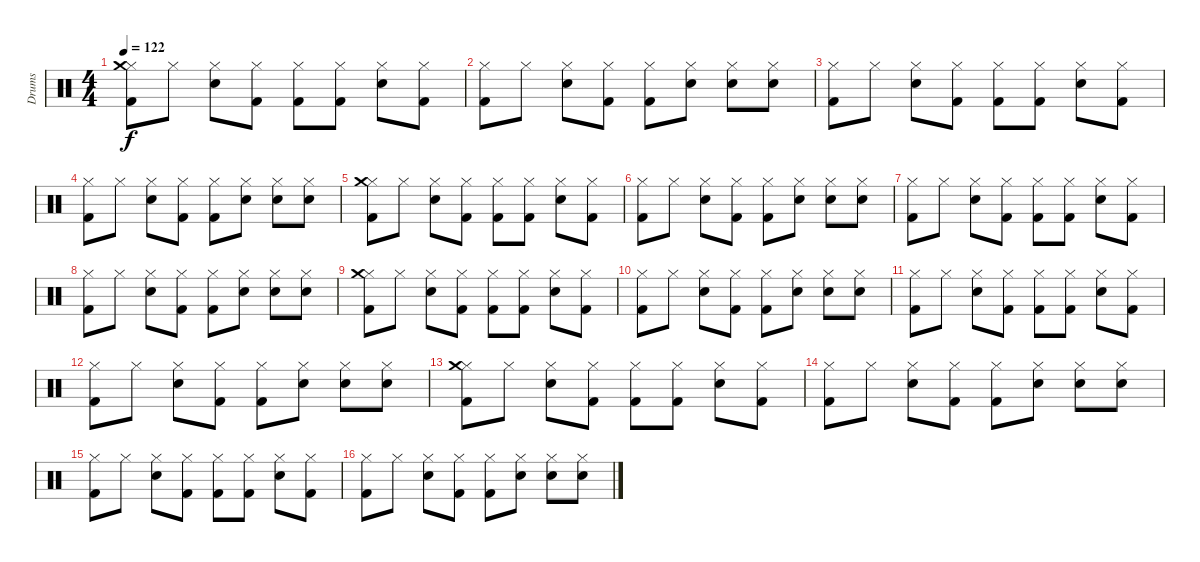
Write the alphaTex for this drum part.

\track ("Drums" "Drums") {instrument percussion}
\staff {score}
\articulation defaults
\ts (4 4)
\tempo 122
\clef neutral
\ks c
("Hi-Hat (closed)" "Crash medium (hit)" "Kick (hit) 2").8{dy f} "Hi-Hat (closed)".8 ("Hi-Hat (closed)" "Snare (hit) 2").8 ("Hi-Hat (closed)" "Kick (hit) 2").8 ("Hi-Hat (closed)" "Kick (hit) 2").8 ("Hi-Hat (closed)" "Kick (hit) 2").8 ("Hi-Hat (closed)" "Snare (hit) 2").8 ("Hi-Hat (closed)" "Kick (hit) 2").8 |
("Kick (hit) 2" "Hi-Hat (closed)").8 "Hi-Hat (closed)".8 ("Snare (hit) 2" "Hi-Hat (closed)").8 ("Kick (hit) 2" "Hi-Hat (closed)").8 ("Kick (hit) 2" "Hi-Hat (closed)").8 ("Snare (hit) 2" "Hi-Hat (closed)").8 ("Snare (hit) 2" "Hi-Hat (closed)").8 ("Snare (hit) 2" "Hi-Hat (closed)").8 |
("Kick (hit) 2" "Hi-Hat (closed)").8 "Hi-Hat (closed)".8 ("Hi-Hat (closed)" "Snare (hit) 2").8 ("Hi-Hat (closed)" "Kick (hit) 2").8 ("Hi-Hat (closed)" "Kick (hit) 2").8 ("Hi-Hat (closed)" "Kick (hit) 2").8 ("Hi-Hat (closed)" "Snare (hit) 2").8 ("Hi-Hat (closed)" "Kick (hit) 2").8 |
("Kick (hit) 2" "Hi-Hat (closed)").8 "Hi-Hat (closed)".8 ("Snare (hit) 2" "Hi-Hat (closed)").8 ("Kick (hit) 2" "Hi-Hat (closed)").8 ("Kick (hit) 2" "Hi-Hat (closed)").8 ("Snare (hit) 2" "Hi-Hat (closed)").8 ("Snare (hit) 2" "Hi-Hat (closed)").8 ("Snare (hit) 2" "Hi-Hat (closed)").8 |
("Hi-Hat (closed)" "Crash medium (hit)" "Kick (hit) 2").8 "Hi-Hat (closed)".8 ("Hi-Hat (closed)" "Snare (hit) 2").8 ("Hi-Hat (closed)" "Kick (hit) 2").8 ("Hi-Hat (closed)" "Kick (hit) 2").8 ("Hi-Hat (closed)" "Kick (hit) 2").8 ("Hi-Hat (closed)" "Snare (hit) 2").8 ("Hi-Hat (closed)" "Kick (hit) 2").8 |
("Kick (hit) 2" "Hi-Hat (closed)").8 "Hi-Hat (closed)".8 ("Snare (hit) 2" "Hi-Hat (closed)").8 ("Kick (hit) 2" "Hi-Hat (closed)").8 ("Kick (hit) 2" "Hi-Hat (closed)").8 ("Snare (hit) 2" "Hi-Hat (closed)").8 ("Snare (hit) 2" "Hi-Hat (closed)").8 ("Snare (hit) 2" "Hi-Hat (closed)").8 |
("Kick (hit) 2" "Hi-Hat (closed)").8 "Hi-Hat (closed)".8 ("Hi-Hat (closed)" "Snare (hit) 2").8 ("Hi-Hat (closed)" "Kick (hit) 2").8 ("Hi-Hat (closed)" "Kick (hit) 2").8 ("Hi-Hat (closed)" "Kick (hit) 2").8 ("Hi-Hat (closed)" "Snare (hit) 2").8 ("Hi-Hat (closed)" "Kick (hit) 2").8 |
("Kick (hit) 2" "Hi-Hat (closed)").8 "Hi-Hat (closed)".8 ("Snare (hit) 2" "Hi-Hat (closed)").8 ("Kick (hit) 2" "Hi-Hat (closed)").8 ("Kick (hit) 2" "Hi-Hat (closed)").8 ("Snare (hit) 2" "Hi-Hat (closed)").8 ("Snare (hit) 2" "Hi-Hat (closed)").8 ("Snare (hit) 2" "Hi-Hat (closed)").8 |
("Hi-Hat (closed)" "Crash medium (hit)" "Kick (hit) 2").8 "Hi-Hat (closed)".8 ("Hi-Hat (closed)" "Snare (hit) 2").8 ("Hi-Hat (closed)" "Kick (hit) 2").8 ("Hi-Hat (closed)" "Kick (hit) 2").8 ("Hi-Hat (closed)" "Kick (hit) 2").8 ("Hi-Hat (closed)" "Snare (hit) 2").8 ("Hi-Hat (closed)" "Kick (hit) 2").8 |
("Kick (hit) 2" "Hi-Hat (closed)").8 "Hi-Hat (closed)".8 ("Snare (hit) 2" "Hi-Hat (closed)").8 ("Kick (hit) 2" "Hi-Hat (closed)").8 ("Kick (hit) 2" "Hi-Hat (closed)").8 ("Snare (hit) 2" "Hi-Hat (closed)").8 ("Snare (hit) 2" "Hi-Hat (closed)").8 ("Snare (hit) 2" "Hi-Hat (closed)").8 |
("Kick (hit) 2" "Hi-Hat (closed)").8 "Hi-Hat (closed)".8 ("Hi-Hat (closed)" "Snare (hit) 2").8 ("Hi-Hat (closed)" "Kick (hit) 2").8 ("Hi-Hat (closed)" "Kick (hit) 2").8 ("Hi-Hat (closed)" "Kick (hit) 2").8 ("Hi-Hat (closed)" "Snare (hit) 2").8 ("Hi-Hat (closed)" "Kick (hit) 2").8 |
("Kick (hit) 2" "Hi-Hat (closed)").8 "Hi-Hat (closed)".8 ("Snare (hit) 2" "Hi-Hat (closed)").8 ("Kick (hit) 2" "Hi-Hat (closed)").8 ("Kick (hit) 2" "Hi-Hat (closed)").8 ("Snare (hit) 2" "Hi-Hat (closed)").8 ("Snare (hit) 2" "Hi-Hat (closed)").8 ("Snare (hit) 2" "Hi-Hat (closed)").8 |
("Hi-Hat (closed)" "Crash medium (hit)" "Kick (hit) 2").8 "Hi-Hat (closed)".8 ("Hi-Hat (closed)" "Snare (hit) 2").8 ("Hi-Hat (closed)" "Kick (hit) 2").8 ("Hi-Hat (closed)" "Kick (hit) 2").8 ("Hi-Hat (closed)" "Kick (hit) 2").8 ("Hi-Hat (closed)" "Snare (hit) 2").8 ("Hi-Hat (closed)" "Kick (hit) 2").8 |
("Kick (hit) 2" "Hi-Hat (closed)").8 "Hi-Hat (closed)".8 ("Snare (hit) 2" "Hi-Hat (closed)").8 ("Kick (hit) 2" "Hi-Hat (closed)").8 ("Kick (hit) 2" "Hi-Hat (closed)").8 ("Snare (hit) 2" "Hi-Hat (closed)").8 ("Snare (hit) 2" "Hi-Hat (closed)").8 ("Snare (hit) 2" "Hi-Hat (closed)").8 |
("Kick (hit) 2" "Hi-Hat (closed)").8 "Hi-Hat (closed)".8 ("Hi-Hat (closed)" "Snare (hit) 2").8 ("Hi-Hat (closed)" "Kick (hit) 2").8 ("Hi-Hat (closed)" "Kick (hit) 2").8 ("Hi-Hat (closed)" "Kick (hit) 2").8 ("Hi-Hat (closed)" "Snare (hit) 2").8 ("Hi-Hat (closed)" "Kick (hit) 2").8 |
("Kick (hit) 2" "Hi-Hat (closed)").8 "Hi-Hat (closed)".8 ("Snare (hit) 2" "Hi-Hat (closed)").8 ("Kick (hit) 2" "Hi-Hat (closed)").8 ("Kick (hit) 2" "Hi-Hat (closed)").8 ("Snare (hit) 2" "Hi-Hat (closed)").8 ("Snare (hit) 2" "Hi-Hat (closed)").8 ("Snare (hit) 2" "Hi-Hat (closed)").8
